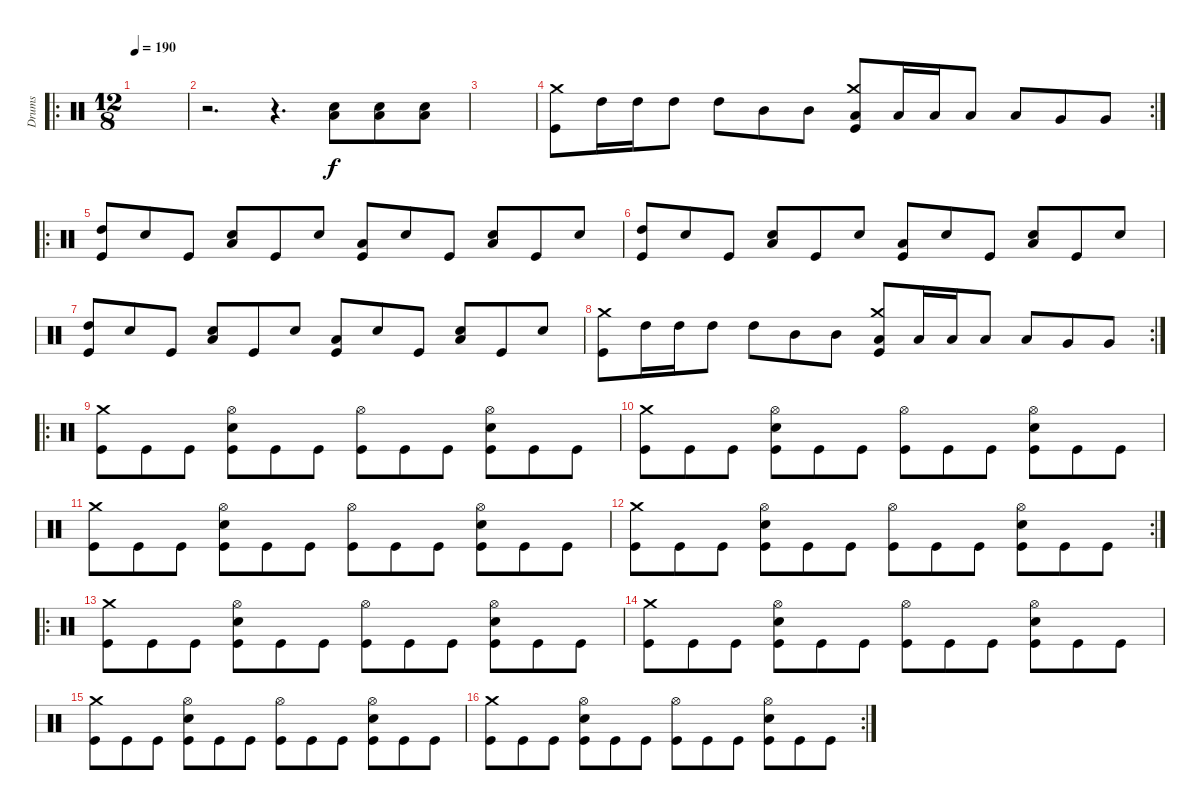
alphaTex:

\track ("Drums" "Drums") {instrument percussion}
\staff {score}
\articulation defaults
\ro
\ts (12 8)
\tempo 190
\clef neutral
\ks c
|
r.2{d} r.4{d} ("Low Tom (hit)" "Snare (hit) 2").8 ("Low Tom (hit)" "Snare (hit) 2").8 ("Low Tom (hit)" "Snare (hit) 2").8 |
|
\rc 2
("Crash medium (hit)" "Kick (hit)").8 "High Tom (hit)".16 "High Tom (hit)".16 "High Tom (hit)".8 "High Tom (hit)".8 "Mid Tom (hit)".8 "Mid Tom (hit)".8 ("Crash medium (hit)" "Low Tom (hit)" "Kick (hit)").8 "Low Tom (hit)".16 "Low Tom (hit)".16 "Low Tom (hit)".8 "Low Tom (hit)".8 "Very Low Tom (hit)".8 "Very Low Tom (hit)".8 |
\ro
("High Tom (hit)" "Kick (hit)").8 "Snare (hit) 2".8 "Kick (hit)".8 ("Low Tom (hit)" "Snare (hit) 2").8 "Kick (hit)".8 "Snare (hit) 2".8 ("Low Floor Tom (hit)" "Kick (hit)").8 "Snare (hit) 2".8 "Kick (hit)".8 ("Low Tom (hit)" "Snare (hit) 2").8 "Kick (hit)".8 "Snare (hit) 2".8 |
("High Tom (hit)" "Kick (hit)").8 "Snare (hit) 2".8 "Kick (hit)".8 ("Low Tom (hit)" "Snare (hit) 2").8 "Kick (hit)".8 "Snare (hit) 2".8 ("Low Floor Tom (hit)" "Kick (hit)").8 "Snare (hit) 2".8 "Kick (hit)".8 ("Low Tom (hit)" "Snare (hit) 2").8 "Kick (hit)".8 "Snare (hit) 2".8 |
("High Tom (hit)" "Kick (hit)").8 "Snare (hit) 2".8 "Kick (hit)".8 ("Low Tom (hit)" "Snare (hit) 2").8 "Kick (hit)".8 "Snare (hit) 2".8 ("Low Floor Tom (hit)" "Kick (hit)").8 "Snare (hit) 2".8 "Kick (hit)".8 ("Low Tom (hit)" "Snare (hit) 2").8 "Kick (hit)".8 "Snare (hit) 2".8 |
\rc 2
("Crash medium (hit)" "Kick (hit)").8 "High Tom (hit)".16 "High Tom (hit)".16 "High Tom (hit)".8 "High Tom (hit)".8 "Mid Tom (hit)".8 "Mid Tom (hit)".8 ("Crash medium (hit)" "Low Tom (hit)" "Kick (hit)").8 "Low Tom (hit)".16 "Low Tom (hit)".16 "Low Tom (hit)".8 "Low Tom (hit)".8 "Very Low Tom (hit)".8 "Very Low Tom (hit)".8 |
\ro
("Crash medium (hit)" "Kick (hit)").8 "Kick (hit)".8 "Kick (hit)".8 ("Hi-Hat (open)" "Snare (hit) 2" "Kick (hit)").8 "Kick (hit)".8 "Kick (hit)".8 ("Hi-Hat (open)" "Kick (hit)").8 "Kick (hit)".8 "Kick (hit)".8 ("Hi-Hat (open)" "Snare (hit) 2" "Kick (hit)").8 "Kick (hit)".8 "Kick (hit)".8 |
("Crash medium (hit)" "Kick (hit)").8 "Kick (hit)".8 "Kick (hit)".8 ("Hi-Hat (open)" "Snare (hit) 2" "Kick (hit)").8 "Kick (hit)".8 "Kick (hit)".8 ("Hi-Hat (open)" "Kick (hit)").8 "Kick (hit)".8 "Kick (hit)".8 ("Hi-Hat (open)" "Snare (hit) 2" "Kick (hit)").8 "Kick (hit)".8 "Kick (hit)".8 |
("Crash medium (hit)" "Kick (hit)").8 "Kick (hit)".8 "Kick (hit)".8 ("Hi-Hat (open)" "Snare (hit) 2" "Kick (hit)").8 "Kick (hit)".8 "Kick (hit)".8 ("Hi-Hat (open)" "Kick (hit)").8 "Kick (hit)".8 "Kick (hit)".8 ("Hi-Hat (open)" "Snare (hit) 2" "Kick (hit)").8 "Kick (hit)".8 "Kick (hit)".8 |
\rc 2
("Crash medium (hit)" "Kick (hit)").8 "Kick (hit)".8 "Kick (hit)".8 ("Hi-Hat (open)" "Snare (hit) 2" "Kick (hit)").8 "Kick (hit)".8 "Kick (hit)".8 ("Hi-Hat (open)" "Kick (hit)").8 "Kick (hit)".8 "Kick (hit)".8 ("Hi-Hat (open)" "Snare (hit) 2" "Kick (hit)").8 "Kick (hit)".8 "Kick (hit)".8 |
\ro
("Crash medium (hit)" "Kick (hit)").8 "Kick (hit)".8 "Kick (hit)".8 ("Hi-Hat (open)" "Snare (hit) 2" "Kick (hit)").8 "Kick (hit)".8 "Kick (hit)".8 ("Hi-Hat (open)" "Kick (hit)").8 "Kick (hit)".8 "Kick (hit)".8 ("Hi-Hat (open)" "Snare (hit) 2" "Kick (hit)").8 "Kick (hit)".8 "Kick (hit)".8 |
("Crash medium (hit)" "Kick (hit)").8 "Kick (hit)".8 "Kick (hit)".8 ("Hi-Hat (open)" "Snare (hit) 2" "Kick (hit)").8 "Kick (hit)".8 "Kick (hit)".8 ("Hi-Hat (open)" "Kick (hit)").8 "Kick (hit)".8 "Kick (hit)".8 ("Hi-Hat (open)" "Snare (hit) 2" "Kick (hit)").8 "Kick (hit)".8 "Kick (hit)".8 |
("Crash medium (hit)" "Kick (hit)").8 "Kick (hit)".8 "Kick (hit)".8 ("Hi-Hat (open)" "Snare (hit) 2" "Kick (hit)").8 "Kick (hit)".8 "Kick (hit)".8 ("Hi-Hat (open)" "Kick (hit)").8 "Kick (hit)".8 "Kick (hit)".8 ("Hi-Hat (open)" "Snare (hit) 2" "Kick (hit)").8 "Kick (hit)".8 "Kick (hit)".8 |
\rc 2
("Crash medium (hit)" "Kick (hit)").8 "Kick (hit)".8 "Kick (hit)".8 ("Hi-Hat (open)" "Snare (hit) 2" "Kick (hit)").8 "Kick (hit)".8 "Kick (hit)".8 ("Hi-Hat (open)" "Kick (hit)").8 "Kick (hit)".8 "Kick (hit)".8 ("Hi-Hat (open)" "Snare (hit) 2" "Kick (hit)").8 "Kick (hit)".8 "Kick (hit)".8
